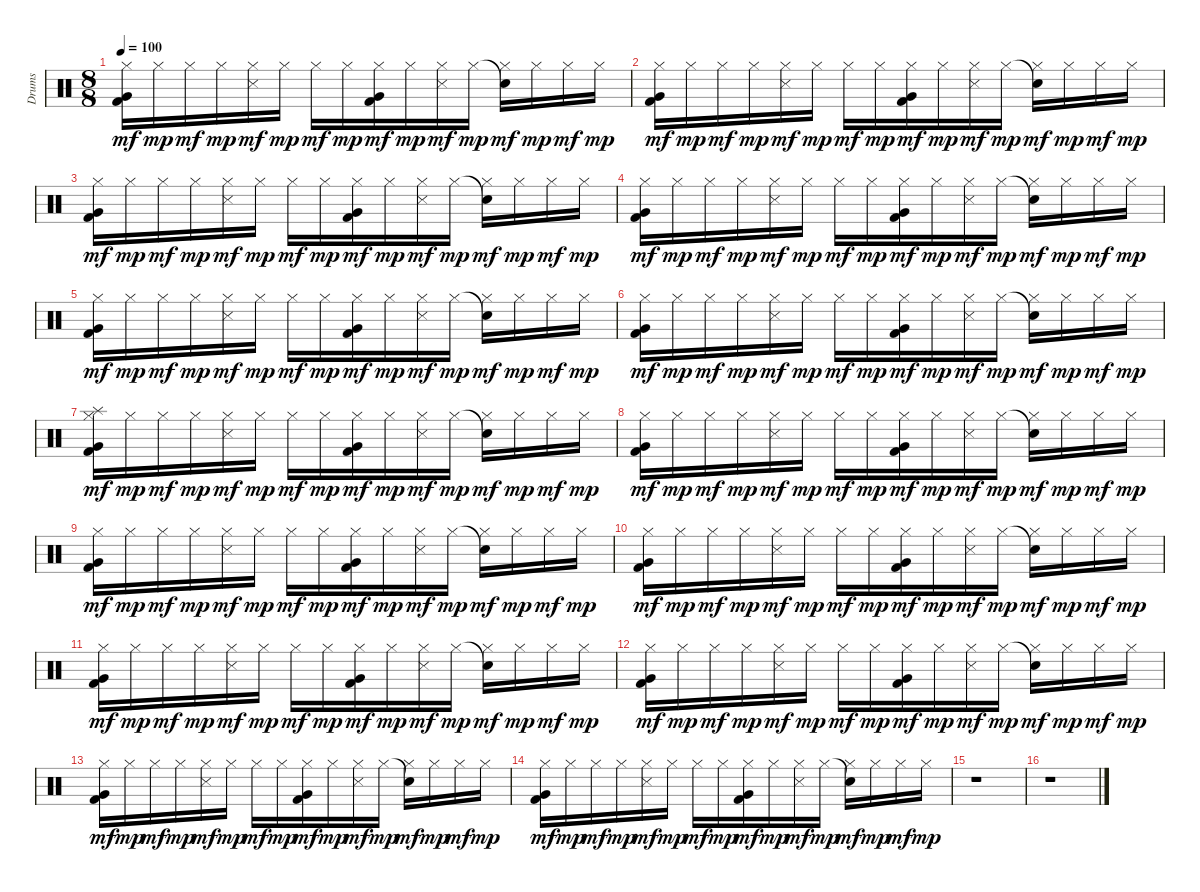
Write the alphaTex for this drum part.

\track ("Drums" "Drums") {instrument percussion}
\staff {score}
\articulation defaults
\ts (8 8)
\tempo 100
\clef neutral
\ks c
("Kick (hit) 2" "Very Low Tom (hit)" "Hi-Hat (closed)").16{dy mf} "Hi-Hat (closed)".16{dy mp} "Hi-Hat (closed)".16{dy mf} "Hi-Hat (closed)".16{dy mp} ("Snare (side stick) 3" "Hi-Hat (closed)").16{dy mf} "Hi-Hat (closed)".16{dy mp} "Hi-Hat (closed)".16{dy mf} "Hi-Hat (closed)".16{dy mp} ("Kick (hit) 2" "Very Low Tom (hit)" "Hi-Hat (closed)").16{dy mf} "Hi-Hat (closed)".16{dy mp} ("Snare (side stick) 3" "Hi-Hat (closed)").16{dy mf} "Hi-Hat (closed)".16{dy mp} ("Snare (hit)"{t} "Hi-Hat (closed)").16{dy mf} "Hi-Hat (closed)".16{dy mp} "Hi-Hat (closed)".16{dy mf} "Hi-Hat (closed)".16{dy mp} |
("Kick (hit) 2" "Very Low Tom (hit)" "Hi-Hat (closed)").16{dy mf} "Hi-Hat (closed)".16{dy mp} "Hi-Hat (closed)".16{dy mf} "Hi-Hat (closed)".16{dy mp} ("Snare (side stick) 3" "Hi-Hat (closed)").16{dy mf} "Hi-Hat (closed)".16{dy mp} "Hi-Hat (closed)".16{dy mf} "Hi-Hat (closed)".16{dy mp} ("Kick (hit) 2" "Very Low Tom (hit)" "Hi-Hat (closed)").16{dy mf} "Hi-Hat (closed)".16{dy mp} ("Snare (side stick) 3" "Hi-Hat (closed)").16{dy mf} "Hi-Hat (closed)".16{dy mp} ("Snare (hit)"{t} "Hi-Hat (closed)").16{dy mf} "Hi-Hat (closed)".16{dy mp} "Hi-Hat (closed)".16{dy mf} "Hi-Hat (closed)".16{dy mp} |
("Kick (hit) 2" "Very Low Tom (hit)" "Hi-Hat (closed)").16{dy mf} "Hi-Hat (closed)".16{dy mp} "Hi-Hat (closed)".16{dy mf} "Hi-Hat (closed)".16{dy mp} ("Snare (side stick) 3" "Hi-Hat (closed)").16{dy mf} "Hi-Hat (closed)".16{dy mp} "Hi-Hat (closed)".16{dy mf} "Hi-Hat (closed)".16{dy mp} ("Kick (hit) 2" "Very Low Tom (hit)" "Hi-Hat (closed)").16{dy mf} "Hi-Hat (closed)".16{dy mp} ("Snare (side stick) 3" "Hi-Hat (closed)").16{dy mf} "Hi-Hat (closed)".16{dy mp} ("Snare (hit)"{t} "Hi-Hat (closed)").16{dy mf} "Hi-Hat (closed)".16{dy mp} "Hi-Hat (closed)".16{dy mf} "Hi-Hat (closed)".16{dy mp} |
("Kick (hit) 2" "Very Low Tom (hit)" "Hi-Hat (closed)").16{dy mf} "Hi-Hat (closed)".16{dy mp} "Hi-Hat (closed)".16{dy mf} "Hi-Hat (closed)".16{dy mp} ("Snare (side stick) 3" "Hi-Hat (closed)").16{dy mf} "Hi-Hat (closed)".16{dy mp} "Hi-Hat (closed)".16{dy mf} "Hi-Hat (closed)".16{dy mp} ("Kick (hit) 2" "Very Low Tom (hit)" "Hi-Hat (closed)").16{dy mf} "Hi-Hat (closed)".16{dy mp} ("Snare (side stick) 3" "Hi-Hat (closed)").16{dy mf} "Hi-Hat (closed)".16{dy mp} ("Snare (hit)"{t} "Hi-Hat (closed)").16{dy mf} "Hi-Hat (closed)".16{dy mp} "Hi-Hat (closed)".16{dy mf} "Hi-Hat (closed)".16{dy mp} |
("Kick (hit) 2" "Very Low Tom (hit)" "Hi-Hat (closed)").16{dy mf} "Hi-Hat (closed)".16{dy mp} "Hi-Hat (closed)".16{dy mf} "Hi-Hat (closed)".16{dy mp} ("Snare (side stick) 3" "Hi-Hat (closed)").16{dy mf} "Hi-Hat (closed)".16{dy mp} "Hi-Hat (closed)".16{dy mf} "Hi-Hat (closed)".16{dy mp} ("Kick (hit) 2" "Very Low Tom (hit)" "Hi-Hat (closed)").16{dy mf} "Hi-Hat (closed)".16{dy mp} ("Snare (side stick) 3" "Hi-Hat (closed)").16{dy mf} "Hi-Hat (closed)".16{dy mp} ("Snare (hit)"{t} "Hi-Hat (closed)").16{dy mf} "Hi-Hat (closed)".16{dy mp} "Hi-Hat (closed)".16{dy mf} "Hi-Hat (closed)".16{dy mp} |
("Kick (hit) 2" "Very Low Tom (hit)" "Hi-Hat (closed)").16{dy mf} "Hi-Hat (closed)".16{dy mp} "Hi-Hat (closed)".16{dy mf} "Hi-Hat (closed)".16{dy mp} ("Snare (side stick) 3" "Hi-Hat (closed)").16{dy mf} "Hi-Hat (closed)".16{dy mp} "Hi-Hat (closed)".16{dy mf} "Hi-Hat (closed)".16{dy mp} ("Kick (hit) 2" "Very Low Tom (hit)" "Hi-Hat (closed)").16{dy mf} "Hi-Hat (closed)".16{dy mp} ("Snare (side stick) 3" "Hi-Hat (closed)").16{dy mf} "Hi-Hat (closed)".16{dy mp} ("Snare (hit)"{t} "Hi-Hat (closed)").16{dy mf} "Hi-Hat (closed)".16{dy mp} "Hi-Hat (closed)".16{dy mf} "Hi-Hat (closed)".16{dy mp} |
("Splash (hit)" "Kick (hit) 2" "Very Low Tom (hit)" "Hi-Hat (closed)").16{dy mf} "Hi-Hat (closed)".16{dy mp} "Hi-Hat (closed)".16{dy mf} "Hi-Hat (closed)".16{dy mp} ("Snare (side stick) 3" "Hi-Hat (closed)").16{dy mf} "Hi-Hat (closed)".16{dy mp} "Hi-Hat (closed)".16{dy mf} "Hi-Hat (closed)".16{dy mp} ("Kick (hit) 2" "Very Low Tom (hit)" "Hi-Hat (closed)").16{dy mf} "Hi-Hat (closed)".16{dy mp} ("Snare (side stick) 3" "Hi-Hat (closed)").16{dy mf} "Hi-Hat (closed)".16{dy mp} ("Snare (hit)"{t} "Hi-Hat (closed)").16{dy mf} "Hi-Hat (closed)".16{dy mp} "Hi-Hat (closed)".16{dy mf} "Hi-Hat (closed)".16{dy mp} |
("Kick (hit) 2" "Very Low Tom (hit)" "Hi-Hat (closed)").16{dy mf} "Hi-Hat (closed)".16{dy mp} "Hi-Hat (closed)".16{dy mf} "Hi-Hat (closed)".16{dy mp} ("Snare (side stick) 3" "Hi-Hat (closed)").16{dy mf} "Hi-Hat (closed)".16{dy mp} "Hi-Hat (closed)".16{dy mf} "Hi-Hat (closed)".16{dy mp} ("Kick (hit) 2" "Very Low Tom (hit)" "Hi-Hat (closed)").16{dy mf} "Hi-Hat (closed)".16{dy mp} ("Snare (side stick) 3" "Hi-Hat (closed)").16{dy mf} "Hi-Hat (closed)".16{dy mp} ("Snare (hit)"{t} "Hi-Hat (closed)").16{dy mf} "Hi-Hat (closed)".16{dy mp} "Hi-Hat (closed)".16{dy mf} "Hi-Hat (closed)".16{dy mp} |
("Kick (hit) 2" "Very Low Tom (hit)" "Hi-Hat (closed)").16{dy mf} "Hi-Hat (closed)".16{dy mp} "Hi-Hat (closed)".16{dy mf} "Hi-Hat (closed)".16{dy mp} ("Snare (side stick) 3" "Hi-Hat (closed)").16{dy mf} "Hi-Hat (closed)".16{dy mp} "Hi-Hat (closed)".16{dy mf} "Hi-Hat (closed)".16{dy mp} ("Kick (hit) 2" "Very Low Tom (hit)" "Hi-Hat (closed)").16{dy mf} "Hi-Hat (closed)".16{dy mp} ("Snare (side stick) 3" "Hi-Hat (closed)").16{dy mf} "Hi-Hat (closed)".16{dy mp} ("Snare (hit)"{t} "Hi-Hat (closed)").16{dy mf} "Hi-Hat (closed)".16{dy mp} "Hi-Hat (closed)".16{dy mf} "Hi-Hat (closed)".16{dy mp} |
("Kick (hit) 2" "Very Low Tom (hit)" "Hi-Hat (closed)").16{dy mf} "Hi-Hat (closed)".16{dy mp} "Hi-Hat (closed)".16{dy mf} "Hi-Hat (closed)".16{dy mp} ("Snare (side stick) 3" "Hi-Hat (closed)").16{dy mf} "Hi-Hat (closed)".16{dy mp} "Hi-Hat (closed)".16{dy mf} "Hi-Hat (closed)".16{dy mp} ("Kick (hit) 2" "Very Low Tom (hit)" "Hi-Hat (closed)").16{dy mf} "Hi-Hat (closed)".16{dy mp} ("Snare (side stick) 3" "Hi-Hat (closed)").16{dy mf} "Hi-Hat (closed)".16{dy mp} ("Snare (hit)"{t} "Hi-Hat (closed)").16{dy mf} "Hi-Hat (closed)".16{dy mp} "Hi-Hat (closed)".16{dy mf} "Hi-Hat (closed)".16{dy mp} |
("Kick (hit) 2" "Very Low Tom (hit)" "Hi-Hat (closed)").16{dy mf} "Hi-Hat (closed)".16{dy mp} "Hi-Hat (closed)".16{dy mf} "Hi-Hat (closed)".16{dy mp} ("Snare (side stick) 3" "Hi-Hat (closed)").16{dy mf} "Hi-Hat (closed)".16{dy mp} "Hi-Hat (closed)".16{dy mf} "Hi-Hat (closed)".16{dy mp} ("Kick (hit) 2" "Very Low Tom (hit)" "Hi-Hat (closed)").16{dy mf} "Hi-Hat (closed)".16{dy mp} ("Snare (side stick) 3" "Hi-Hat (closed)").16{dy mf} "Hi-Hat (closed)".16{dy mp} ("Snare (hit)"{t} "Hi-Hat (closed)").16{dy mf} "Hi-Hat (closed)".16{dy mp} "Hi-Hat (closed)".16{dy mf} "Hi-Hat (closed)".16{dy mp} |
("Kick (hit) 2" "Very Low Tom (hit)" "Hi-Hat (closed)").16{dy mf} "Hi-Hat (closed)".16{dy mp} "Hi-Hat (closed)".16{dy mf} "Hi-Hat (closed)".16{dy mp} ("Snare (side stick) 3" "Hi-Hat (closed)").16{dy mf} "Hi-Hat (closed)".16{dy mp} "Hi-Hat (closed)".16{dy mf} "Hi-Hat (closed)".16{dy mp} ("Kick (hit) 2" "Very Low Tom (hit)" "Hi-Hat (closed)").16{dy mf} "Hi-Hat (closed)".16{dy mp} ("Snare (side stick) 3" "Hi-Hat (closed)").16{dy mf} "Hi-Hat (closed)".16{dy mp} ("Snare (hit)"{t} "Hi-Hat (closed)").16{dy mf} "Hi-Hat (closed)".16{dy mp} "Hi-Hat (closed)".16{dy mf} "Hi-Hat (closed)".16{dy mp} |
("Kick (hit) 2" "Very Low Tom (hit)" "Hi-Hat (closed)").16{dy mf} "Hi-Hat (closed)".16{dy mp} "Hi-Hat (closed)".16{dy mf} "Hi-Hat (closed)".16{dy mp} ("Snare (side stick) 3" "Hi-Hat (closed)").16{dy mf} "Hi-Hat (closed)".16{dy mp} "Hi-Hat (closed)".16{dy mf} "Hi-Hat (closed)".16{dy mp} ("Kick (hit) 2" "Very Low Tom (hit)" "Hi-Hat (closed)").16{dy mf} "Hi-Hat (closed)".16{dy mp} ("Snare (side stick) 3" "Hi-Hat (closed)").16{dy mf} "Hi-Hat (closed)".16{dy mp} ("Snare (hit)"{t} "Hi-Hat (closed)").16{dy mf} "Hi-Hat (closed)".16{dy mp} "Hi-Hat (closed)".16{dy mf} "Hi-Hat (closed)".16{dy mp} |
("Kick (hit) 2" "Very Low Tom (hit)" "Hi-Hat (closed)").16{dy mf} "Hi-Hat (closed)".16{dy mp} "Hi-Hat (closed)".16{dy mf} "Hi-Hat (closed)".16{dy mp} ("Snare (side stick) 3" "Hi-Hat (closed)").16{dy mf} "Hi-Hat (closed)".16{dy mp} "Hi-Hat (closed)".16{dy mf} "Hi-Hat (closed)".16{dy mp} ("Kick (hit) 2" "Very Low Tom (hit)" "Hi-Hat (closed)").16{dy mf} "Hi-Hat (closed)".16{dy mp} ("Snare (side stick) 3" "Hi-Hat (closed)").16{dy mf} "Hi-Hat (closed)".16{dy mp} ("Snare (hit)"{t} "Hi-Hat (closed)").16{dy mf} "Hi-Hat (closed)".16{dy mp} "Hi-Hat (closed)".16{dy mf} "Hi-Hat (closed)".16{dy mp} |
r.1 |
r.1
